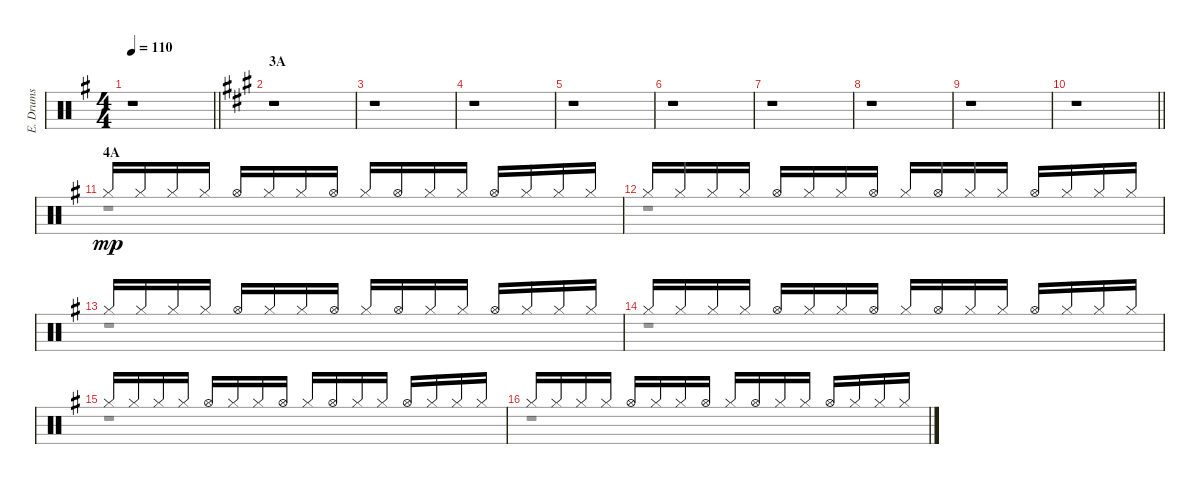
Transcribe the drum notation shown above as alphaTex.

\track ("E. Drums" "E. Drums") {instrument percussion}
\staff {score}
\articulation defaults
\voice
\ts (4 4)
\tempo 110
\clef neutral
\barLineRight lightlight
\ks g
r.1{dy mp} |
\section ("" "3A")
\ks a
r.1 |
r.1 |
r.1 |
r.1 |
r.1 |
r.1 |
r.1 |
r.1 |
\barLineRight lightlight
r.1 |
\section ("" "4A")
\ks g "Hi-Hat (closed)".16 "Hi-Hat (closed)".16 "Hi-Hat (closed)".16 "Hi-Hat (closed)".16 "Hi-Hat (open)".16 "Hi-Hat (closed)".16 "Hi-Hat (closed)".16 "Hi-Hat (open)".16 "Hi-Hat (closed)".16 "Hi-Hat (open)".16 "Hi-Hat (closed)".16 "Hi-Hat (closed)".16 "Hi-Hat (open)".16 "Hi-Hat (closed)".16 "Hi-Hat (closed)".16 "Hi-Hat (closed)".16
|
"Hi-Hat (closed)".16 "Hi-Hat (closed)".16 "Hi-Hat (closed)".16 "Hi-Hat (closed)".16 "Hi-Hat (open)".16 "Hi-Hat (closed)".16 "Hi-Hat (closed)".16 "Hi-Hat (open)".16 "Hi-Hat (closed)".16 "Hi-Hat (open)".16 "Hi-Hat (closed)".16 "Hi-Hat (closed)".16 "Hi-Hat (open)".16 "Hi-Hat (closed)".16 "Hi-Hat (closed)".16 "Hi-Hat (closed)".16 |
"Hi-Hat (closed)".16 "Hi-Hat (closed)".16 "Hi-Hat (closed)".16 "Hi-Hat (closed)".16 "Hi-Hat (open)".16 "Hi-Hat (closed)".16 "Hi-Hat (closed)".16 "Hi-Hat (open)".16 "Hi-Hat (closed)".16 "Hi-Hat (open)".16 "Hi-Hat (closed)".16 "Hi-Hat (closed)".16 "Hi-Hat (open)".16 "Hi-Hat (closed)".16 "Hi-Hat (closed)".16 "Hi-Hat (closed)".16 |
"Hi-Hat (closed)".16 "Hi-Hat (closed)".16 "Hi-Hat (closed)".16 "Hi-Hat (closed)".16 "Hi-Hat (open)".16 "Hi-Hat (closed)".16 "Hi-Hat (closed)".16 "Hi-Hat (open)".16 "Hi-Hat (closed)".16 "Hi-Hat (open)".16 "Hi-Hat (closed)".16 "Hi-Hat (closed)".16 "Hi-Hat (open)".16 "Hi-Hat (closed)".16 "Hi-Hat (closed)".16 "Hi-Hat (closed)".16 |
"Hi-Hat (closed)".16 "Hi-Hat (closed)".16 "Hi-Hat (closed)".16 "Hi-Hat (closed)".16 "Hi-Hat (open)".16 "Hi-Hat (closed)".16 "Hi-Hat (closed)".16 "Hi-Hat (open)".16 "Hi-Hat (closed)".16 "Hi-Hat (open)".16 "Hi-Hat (closed)".16 "Hi-Hat (closed)".16 "Hi-Hat (open)".16 "Hi-Hat (closed)".16 "Hi-Hat (closed)".16 "Hi-Hat (closed)".16 |
"Hi-Hat (closed)".16 "Hi-Hat (closed)".16 "Hi-Hat (closed)".16 "Hi-Hat (closed)".16 "Hi-Hat (open)".16 "Hi-Hat (closed)".16 "Hi-Hat (closed)".16 "Hi-Hat (open)".16 "Hi-Hat (closed)".16 "Hi-Hat (open)".16 "Hi-Hat (closed)".16 "Hi-Hat (closed)".16 "Hi-Hat (open)".16 "Hi-Hat (closed)".16 "Hi-Hat (closed)".16 "Hi-Hat (closed)".16
\voice
\clef neutral
\ottava regular
\simile none
\barLineRight lightlight
\ks g
r.1{dy mp} |
\ks a
r.1 |
r.1 |
r.1 |
r.1 |
r.1 |
r.1 |
r.1 |
r.1 |
\barLineRight lightlight
r.1 |
\ks g
r.1 |
r.1 |
r.1 |
r.1 |
r.1 |
r.1
